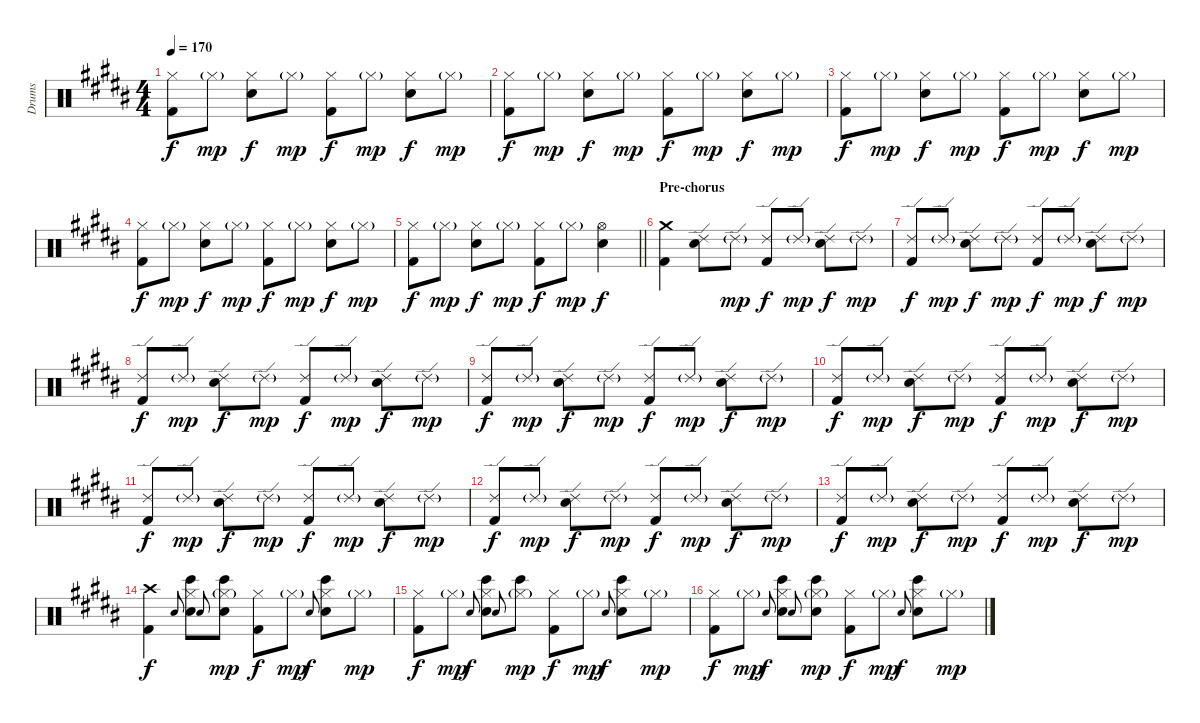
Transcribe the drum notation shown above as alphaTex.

\track ("Drums" "Drums") {instrument percussion}
\staff {score}
\articulation defaults
\ts (4 4)
\tempo 170
\clef neutral
\ks b
("Hi-Hat (closed)" "Kick (hit) 2").8{dy f} "Hi-Hat (closed)"{g}.8{dy mp} ("Hi-Hat (closed)" "Electric Snare (hit)").8{dy f} "Hi-Hat (closed)"{g}.8{dy mp} ("Hi-Hat (closed)" "Kick (hit) 2").8{dy f} "Hi-Hat (closed)"{g}.8{dy mp} ("Hi-Hat (closed)" "Electric Snare (hit)").8{dy f} "Hi-Hat (closed)"{g}.8{dy mp} |
("Hi-Hat (closed)" "Kick (hit) 2").8{dy f} "Hi-Hat (closed)"{g}.8{dy mp} ("Hi-Hat (closed)" "Electric Snare (hit)").8{dy f} "Hi-Hat (closed)"{g}.8{dy mp} ("Hi-Hat (closed)" "Kick (hit) 2").8{dy f} "Hi-Hat (closed)"{g}.8{dy mp} ("Hi-Hat (closed)" "Electric Snare (hit)").8{dy f} "Hi-Hat (closed)"{g}.8{dy mp} |
("Hi-Hat (closed)" "Kick (hit) 2").8{dy f} "Hi-Hat (closed)"{g}.8{dy mp} ("Hi-Hat (closed)" "Electric Snare (hit)").8{dy f} "Hi-Hat (closed)"{g}.8{dy mp} ("Hi-Hat (closed)" "Kick (hit) 2").8{dy f} "Hi-Hat (closed)"{g}.8{dy mp} ("Hi-Hat (closed)" "Electric Snare (hit)").8{dy f} "Hi-Hat (closed)"{g}.8{dy mp} |
("Hi-Hat (closed)" "Kick (hit) 2").8{dy f} "Hi-Hat (closed)"{g}.8{dy mp} ("Hi-Hat (closed)" "Electric Snare (hit)").8{dy f} "Hi-Hat (closed)"{g}.8{dy mp} ("Hi-Hat (closed)" "Kick (hit) 2").8{dy f} "Hi-Hat (closed)"{g}.8{dy mp} ("Hi-Hat (closed)" "Electric Snare (hit)").8{dy f} "Hi-Hat (closed)"{g}.8{dy mp} |
\barLineRight lightlight
("Hi-Hat (closed)" "Kick (hit) 2").8{dy f} "Hi-Hat (closed)"{g}.8{dy mp} ("Hi-Hat (closed)" "Electric Snare (hit)").8{dy f} "Hi-Hat (closed)"{g}.8{dy mp} ("Hi-Hat (closed)" "Kick (hit) 2").8{dy f} "Hi-Hat (closed)"{g}.8{dy mp} ("Hi-Hat (open)" "Electric Snare (hit)").4{dy f} |
\section ("" "Pre-chorus")
("Crash medium (hit)" "Kick (hit) 2").4 ("Ride (edge) 2" "Electric Snare (hit)").8 "Ride (edge) 2"{g}.8{dy mp} ("Ride (edge) 2" "Kick (hit) 2").8{dy f} "Ride (edge) 2"{g}.8{dy mp} ("Ride (edge) 2" "Electric Snare (hit)").8{dy f} "Ride (edge) 2"{g}.8{dy mp} |
("Ride (edge) 2" "Kick (hit) 2").8{dy f} "Ride (edge) 2"{g}.8{dy mp} ("Ride (edge) 2" "Electric Snare (hit)").8{dy f} "Ride (edge) 2"{g}.8{dy mp} ("Ride (edge) 2" "Kick (hit) 2").8{dy f} "Ride (edge) 2"{g}.8{dy mp} ("Ride (edge) 2" "Electric Snare (hit)").8{dy f} "Ride (edge) 2"{g}.8{dy mp} |
("Ride (edge) 2" "Kick (hit) 2").8{dy f} "Ride (edge) 2"{g}.8{dy mp} ("Ride (edge) 2" "Electric Snare (hit)").8{dy f} "Ride (edge) 2"{g}.8{dy mp} ("Ride (edge) 2" "Kick (hit) 2").8{dy f} "Ride (edge) 2"{g}.8{dy mp} ("Ride (edge) 2" "Electric Snare (hit)").8{dy f} "Ride (edge) 2"{g}.8{dy mp} |
("Ride (edge) 2" "Kick (hit) 2").8{dy f} "Ride (edge) 2"{g}.8{dy mp} ("Ride (edge) 2" "Electric Snare (hit)").8{dy f} "Ride (edge) 2"{g}.8{dy mp} ("Ride (edge) 2" "Kick (hit) 2").8{dy f} "Ride (edge) 2"{g}.8{dy mp} ("Ride (edge) 2" "Electric Snare (hit)").8{dy f} "Ride (edge) 2"{g}.8{dy mp} |
("Ride (edge) 2" "Kick (hit) 2").8{dy f} "Ride (edge) 2"{g}.8{dy mp} ("Ride (edge) 2" "Electric Snare (hit)").8{dy f} "Ride (edge) 2"{g}.8{dy mp} ("Ride (edge) 2" "Kick (hit) 2").8{dy f} "Ride (edge) 2"{g}.8{dy mp} ("Ride (edge) 2" "Electric Snare (hit)").8{dy f} "Ride (edge) 2"{g}.8{dy mp} |
("Ride (edge) 2" "Kick (hit) 2").8{dy f} "Ride (edge) 2"{g}.8{dy mp} ("Ride (edge) 2" "Electric Snare (hit)").8{dy f} "Ride (edge) 2"{g}.8{dy mp} ("Ride (edge) 2" "Kick (hit) 2").8{dy f} "Ride (edge) 2"{g}.8{dy mp} ("Ride (edge) 2" "Electric Snare (hit)").8{dy f} "Ride (edge) 2"{g}.8{dy mp} |
("Ride (edge) 2" "Kick (hit) 2").8{dy f} "Ride (edge) 2"{g}.8{dy mp} ("Ride (edge) 2" "Electric Snare (hit)").8{dy f} "Ride (edge) 2"{g}.8{dy mp} ("Ride (edge) 2" "Kick (hit) 2").8{dy f} "Ride (edge) 2"{g}.8{dy mp} ("Ride (edge) 2" "Electric Snare (hit)").8{dy f} "Ride (edge) 2"{g}.8{dy mp} |
("Ride (edge) 2" "Kick (hit) 2").8{dy f} "Ride (edge) 2"{g}.8{dy mp} ("Ride (edge) 2" "Electric Snare (hit)").8{dy f} "Ride (edge) 2"{g}.8{dy mp} ("Ride (edge) 2" "Kick (hit) 2").8{dy f} "Ride (edge) 2"{g}.8{dy mp} ("Ride (edge) 2" "Electric Snare (hit)").8{dy f} "Ride (edge) 2"{g}.8{dy mp} |
("Crash high (hit)" "Kick (hit) 2").4{dy f} "Snare (hit)".8{gr onbeat} ("Hi-Hat (closed)" "Bongo High (hit)" "Electric Snare (hit)").8 "Snare (hit)".8{gr onbeat} ("Hi-Hat (closed)"{g} "Bongo High (hit)" "Electric Snare (hit)").8{dy mp} ("Hi-Hat (closed)" "Kick (hit) 2").8{dy f} "Hi-Hat (closed)"{g}.8{dy mp} "Snare (hit)".8{gr onbeat dy f} ("Hi-Hat (closed)" "Bongo High (hit)" "Electric Snare (hit)").8 "Hi-Hat (closed)"{g}.8{dy mp} |
("Hi-Hat (closed)" "Kick (hit) 2").8{dy f} "Hi-Hat (closed)"{g}.8{dy mp} "Snare (hit)".8{gr onbeat dy f} ("Hi-Hat (closed)" "Bongo High (hit)" "Electric Snare (hit)").8 "Snare (hit)".8{gr onbeat} ("Hi-Hat (closed)"{g} "Bongo High (hit)").8{dy mp} ("Hi-Hat (closed)" "Kick (hit) 2").8{dy f} "Hi-Hat (closed)"{g}.8{dy mp} "Snare (hit)".8{gr onbeat dy f} ("Hi-Hat (closed)" "Bongo High (hit)" "Electric Snare (hit)").8 "Hi-Hat (closed)"{g}.8{dy mp} |
("Hi-Hat (closed)" "Kick (hit) 2").8{dy f} "Hi-Hat (closed)"{g}.8{dy mp} "Snare (hit)".8{gr onbeat dy f} ("Hi-Hat (closed)" "Bongo High (hit)" "Electric Snare (hit)").8 "Snare (hit)".8{gr onbeat} ("Hi-Hat (closed)"{g} "Bongo High (hit)" "Electric Snare (hit)").8{dy mp} ("Hi-Hat (closed)" "Kick (hit) 2").8{dy f} "Hi-Hat (closed)"{g}.8{dy mp} "Snare (hit)".8{gr onbeat dy f} ("Hi-Hat (closed)" "Bongo High (hit)" "Electric Snare (hit)").8 "Hi-Hat (closed)"{g}.8{dy mp}
